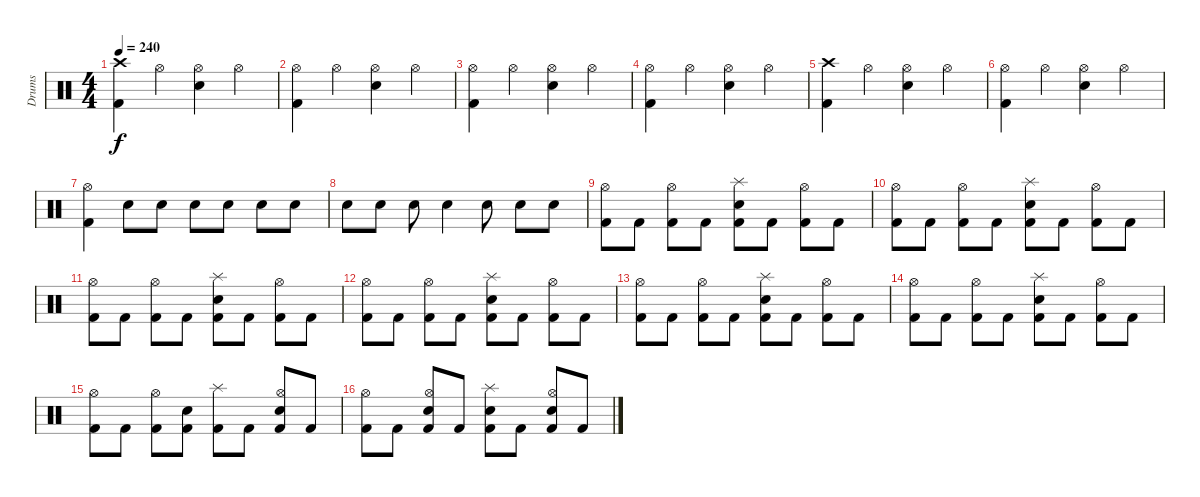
\track ("Drums" "Drums") {instrument percussion}
\staff {score}
\articulation defaults
\ts (4 4)
\tempo 240
\clef neutral
\ks c
("Kick (hit) 2" "Crash high (hit)").4{dy f} "Hi-Hat (open)".4 ("Electric Snare (hit)" "Hi-Hat (open)").4 "Hi-Hat (open)".4 |
("Kick (hit) 2" "Hi-Hat (open)").4 "Hi-Hat (open)".4 ("Electric Snare (hit)" "Hi-Hat (open)").4 "Hi-Hat (open)".4 |
("Kick (hit) 2" "Hi-Hat (open)").4 "Hi-Hat (open)".4 ("Electric Snare (hit)" "Hi-Hat (open)").4 "Hi-Hat (open)".4 |
("Kick (hit) 2" "Hi-Hat (open)").4 "Hi-Hat (open)".4 ("Electric Snare (hit)" "Hi-Hat (open)").4 "Hi-Hat (open)".4 |
("Kick (hit) 2" "Crash high (hit)").4 "Hi-Hat (open)".4 ("Electric Snare (hit)" "Hi-Hat (open)").4 "Hi-Hat (open)".4 |
("Kick (hit) 2" "Hi-Hat (open)").4 "Hi-Hat (open)".4 ("Electric Snare (hit)" "Hi-Hat (open)").4 "Hi-Hat (open)".4 |
("Kick (hit) 2" "Hi-Hat (open)").4 "Electric Snare (hit)".8 "Electric Snare (hit)".8 "Electric Snare (hit)".8 "Electric Snare (hit)".8 "Electric Snare (hit)".8 "Electric Snare (hit)".8 |
"Electric Snare (hit)".8 "Electric Snare (hit)".8 "Electric Snare (hit)".8 "Electric Snare (hit)".4 "Electric Snare (hit)".8 "Electric Snare (hit)".8 "Electric Snare (hit)".8 |
("Kick (hit) 2" "Hi-Hat (open)").8 "Kick (hit) 2".8 ("Kick (hit) 2" "Hi-Hat (open)").8 "Kick (hit) 2".8 ("Kick (hit) 2" "Electric Snare (hit)" "Splash (hit)").8 "Kick (hit) 2".8 ("Kick (hit) 2" "Hi-Hat (open)").8 "Kick (hit) 2".8 |
("Kick (hit) 2" "Hi-Hat (open)").8 "Kick (hit) 2".8 ("Kick (hit) 2" "Hi-Hat (open)").8 "Kick (hit) 2".8 ("Kick (hit) 2" "Electric Snare (hit)" "Splash (hit)").8 "Kick (hit) 2".8 ("Kick (hit) 2" "Hi-Hat (open)").8 "Kick (hit) 2".8 |
("Kick (hit) 2" "Hi-Hat (open)").8 "Kick (hit) 2".8 ("Kick (hit) 2" "Hi-Hat (open)").8 "Kick (hit) 2".8 ("Kick (hit) 2" "Electric Snare (hit)" "Splash (hit)").8 "Kick (hit) 2".8 ("Kick (hit) 2" "Hi-Hat (open)").8 "Kick (hit) 2".8 |
("Kick (hit) 2" "Hi-Hat (open)").8 "Kick (hit) 2".8 ("Kick (hit) 2" "Hi-Hat (open)").8 "Kick (hit) 2".8 ("Kick (hit) 2" "Electric Snare (hit)" "Splash (hit)").8 "Kick (hit) 2".8 ("Kick (hit) 2" "Hi-Hat (open)").8 "Kick (hit) 2".8 |
("Kick (hit) 2" "Hi-Hat (open)").8 "Kick (hit) 2".8 ("Kick (hit) 2" "Hi-Hat (open)").8 "Kick (hit) 2".8 ("Kick (hit) 2" "Electric Snare (hit)" "Splash (hit)").8 "Kick (hit) 2".8 ("Kick (hit) 2" "Hi-Hat (open)").8 "Kick (hit) 2".8 |
("Kick (hit) 2" "Hi-Hat (open)").8 "Kick (hit) 2".8 ("Kick (hit) 2" "Hi-Hat (open)").8 "Kick (hit) 2".8 ("Kick (hit) 2" "Electric Snare (hit)" "Splash (hit)").8 "Kick (hit) 2".8 ("Kick (hit) 2" "Hi-Hat (open)").8 "Kick (hit) 2".8 |
("Kick (hit) 2" "Hi-Hat (open)").8 "Kick (hit) 2".8 ("Kick (hit) 2" "Hi-Hat (open)").8 ("Kick (hit) 2" "Electric Snare (hit)").8 ("Kick (hit) 2" "Splash (hit)").8 "Kick (hit) 2".8 ("Kick (hit) 2" "Electric Snare (hit)" "Hi-Hat (open)").8 "Kick (hit) 2".8 |
("Kick (hit) 2" "Hi-Hat (open)").8 "Kick (hit) 2".8 ("Kick (hit) 2" "Electric Snare (hit)" "Hi-Hat (open)").8 "Kick (hit) 2".8 ("Kick (hit) 2" "Electric Snare (hit)" "Splash (hit)").8 "Kick (hit) 2".8 ("Kick (hit) 2" "Electric Snare (hit)" "Hi-Hat (open)").8 "Kick (hit) 2".8
